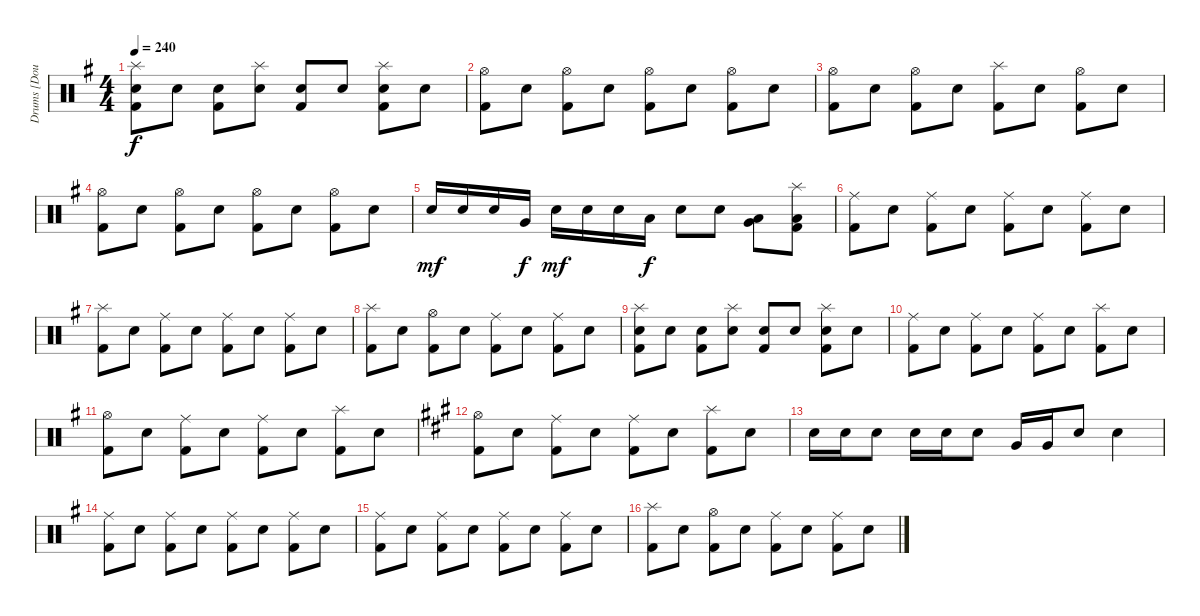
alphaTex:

\track ("Drums [Doug Anderson]" "Drums [Dou") {instrument percussion}
\staff {score}
\articulation defaults
\ts (4 4)
\tempo 240
\clef neutral
\ks eminor
("Splash (hit)" "Electric Snare (hit)" "Kick (hit) 2").8{dy f} "Electric Snare (hit)".8 ("Electric Snare (hit)" "Kick (hit) 2").8 ("Splash (hit)" "Electric Snare (hit)").8 ("Electric Snare (hit)" "Kick (hit) 2").8 "Electric Snare (hit)".8 ("Splash (hit)" "Electric Snare (hit)" "Kick (hit) 2").8 "Electric Snare (hit)".8 |
("Hi-Hat (open)" "Kick (hit) 2").8 "Electric Snare (hit)".8 ("Hi-Hat (open)" "Kick (hit) 2").8 "Electric Snare (hit)".8 ("Hi-Hat (open)" "Kick (hit) 2").8 "Electric Snare (hit)".8 ("Hi-Hat (open)" "Kick (hit) 2").8 "Electric Snare (hit)".8 |
("Hi-Hat (open)" "Kick (hit) 2").8 "Electric Snare (hit)".8 ("Hi-Hat (open)" "Kick (hit) 2").8 "Electric Snare (hit)".8 ("Splash (hit)" "Kick (hit) 2").8 "Electric Snare (hit)".8 ("Hi-Hat (open)" "Kick (hit) 2").8 "Electric Snare (hit)".8 |
("Hi-Hat (open)" "Kick (hit) 2").8 "Electric Snare (hit)".8 ("Hi-Hat (open)" "Kick (hit) 2").8 "Electric Snare (hit)".8 ("Hi-Hat (open)" "Kick (hit) 2").8 "Electric Snare (hit)".8 ("Hi-Hat (open)" "Kick (hit) 2").8 "Electric Snare (hit)".8 |
"Electric Snare (hit)".16{dy mf} "Electric Snare (hit)".16 "Electric Snare (hit)".16 "Very Low Tom (hit)".16{dy f} "Electric Snare (hit)".16{dy mf} "Electric Snare (hit)".16 "Electric Snare (hit)".16 "Low Tom (hit)".16{dy f} "Electric Snare (hit)".8 "Electric Snare (hit)".8 ("Very Low Tom (hit)" "Low Floor Tom (hit)").8 ("Splash (hit)" "Low Floor Tom (hit)" "Kick (hit) 2").8 |
("Ride (middle)" "Kick (hit) 2").8 "Electric Snare (hit)".8 ("Ride (middle)" "Kick (hit) 2").8 "Electric Snare (hit)".8 ("Ride (middle)" "Kick (hit) 2").8 "Electric Snare (hit)".8 ("Ride (middle)" "Kick (hit) 2").8 "Electric Snare (hit)".8 |
("Splash (hit)" "Kick (hit) 2").8 "Electric Snare (hit)".8 ("Ride (middle)" "Kick (hit) 2").8 "Electric Snare (hit)".8 ("Ride (middle)" "Kick (hit) 2").8 "Electric Snare (hit)".8 ("Ride (middle)" "Kick (hit) 2").8 "Electric Snare (hit)".8 |
("Splash (hit)" "Kick (hit) 2").8 "Electric Snare (hit)".8 ("Hi-Hat (open)" "Kick (hit) 2").8 "Electric Snare (hit)".8 ("Ride (middle)" "Kick (hit) 2").8 "Electric Snare (hit)".8 ("Ride (middle)" "Kick (hit) 2").8 "Electric Snare (hit)".8 |
("Splash (hit)" "Electric Snare (hit)" "Kick (hit) 2").8 "Electric Snare (hit)".8 ("Electric Snare (hit)" "Kick (hit) 2").8 ("Splash (hit)" "Electric Snare (hit)").8 ("Electric Snare (hit)" "Kick (hit) 2").8 "Electric Snare (hit)".8 ("Splash (hit)" "Electric Snare (hit)" "Kick (hit) 2").8 "Electric Snare (hit)".8 |
("Ride (middle)" "Kick (hit) 2").8 "Electric Snare (hit)".8 ("Ride (middle)" "Kick (hit) 2").8 "Electric Snare (hit)".8 ("Ride (middle)" "Kick (hit) 2").8 "Electric Snare (hit)".8 ("Splash (hit)" "Kick (hit) 2").8 "Electric Snare (hit)".8 |
("Hi-Hat (open)" "Kick (hit) 2").8 "Electric Snare (hit)".8 ("Ride (middle)" "Kick (hit) 2").8 "Electric Snare (hit)".8 ("Ride (middle)" "Kick (hit) 2").8 "Electric Snare (hit)".8 ("Splash (hit)" "Kick (hit) 2").8 "Electric Snare (hit)".8 |
\ks f#minor
("Hi-Hat (open)" "Kick (hit) 2").8 "Electric Snare (hit)".8 ("Ride (middle)" "Kick (hit) 2").8 "Electric Snare (hit)".8 ("Ride (middle)" "Kick (hit) 2").8 "Electric Snare (hit)".8 ("Splash (hit)" "Kick (hit) 2").8 "Electric Snare (hit)".8 |
"Electric Snare (hit)".16 "Electric Snare (hit)".16 "Electric Snare (hit)".8 "Electric Snare (hit)".16 "Electric Snare (hit)".16 "Electric Snare (hit)".8 "Very Low Tom (hit)".16 "Very Low Tom (hit)".16 "Electric Snare (hit)".8 "Electric Snare (hit)".4 |
\ks eminor
("Ride (middle)" "Kick (hit) 2").8 "Electric Snare (hit)".8 ("Ride (middle)" "Kick (hit) 2").8 "Electric Snare (hit)".8 ("Ride (middle)" "Kick (hit) 2").8 "Electric Snare (hit)".8 ("Ride (middle)" "Kick (hit) 2").8 "Electric Snare (hit)".8 |
("Ride (middle)" "Kick (hit) 2").8 "Electric Snare (hit)".8 ("Ride (middle)" "Kick (hit) 2").8 "Electric Snare (hit)".8 ("Ride (middle)" "Kick (hit) 2").8 "Electric Snare (hit)".8 ("Ride (middle)" "Kick (hit) 2").8 "Electric Snare (hit)".8 |
("Splash (hit)" "Kick (hit) 2").8 "Electric Snare (hit)".8 ("Hi-Hat (open)" "Kick (hit) 2").8 "Electric Snare (hit)".8 ("Ride (middle)" "Kick (hit) 2").8 "Electric Snare (hit)".8 ("Ride (middle)" "Kick (hit) 2").8 "Electric Snare (hit)".8
